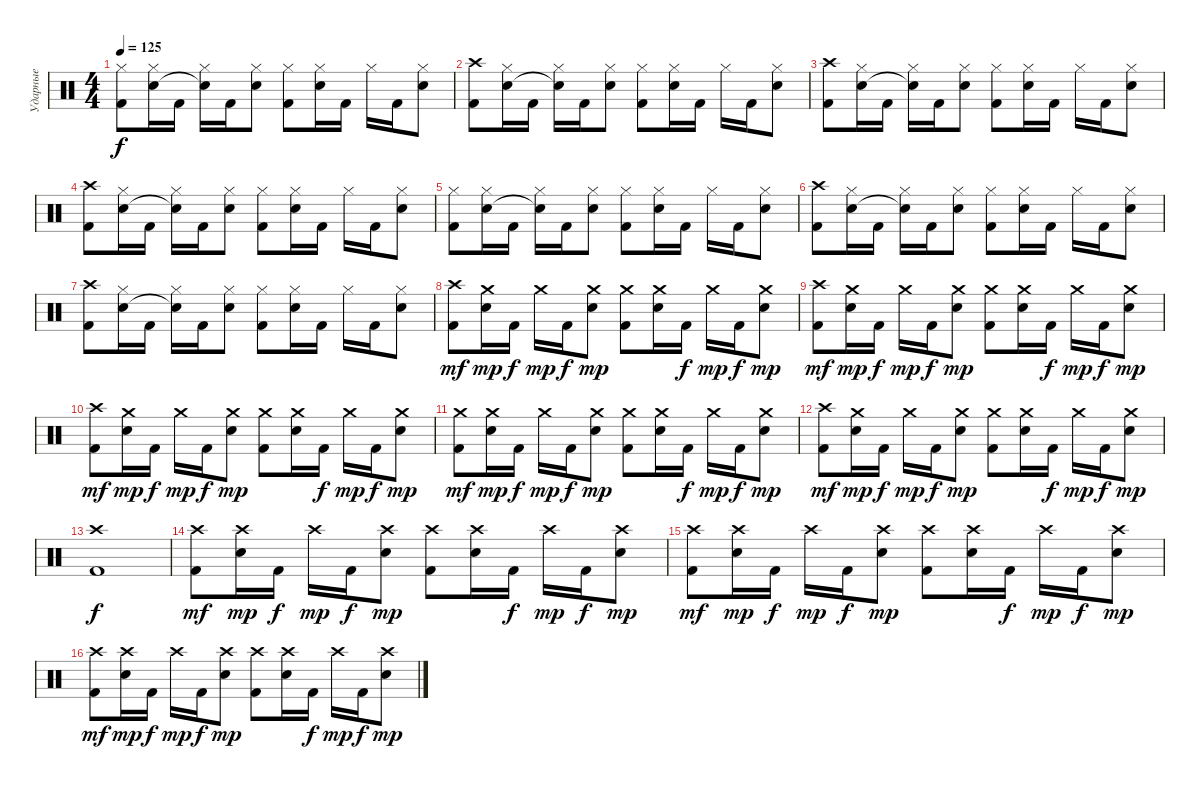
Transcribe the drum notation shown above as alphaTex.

\track ("Ударные" "Ударные") {instrument percussion}
\staff {score}
\articulation defaults
\ts (4 4)
\tempo 125
\clef neutral
\ks c
("Hi-Hat (closed)" "Kick (hit) 2").8{dy f} ("Hi-Hat (closed)" "Electric Snare (hit)").16 "Kick (hit) 2".16 ("Hi-Hat (closed)" "Snare (hit)"{t}).16 "Kick (hit) 2".16 ("Hi-Hat (closed)" "Electric Snare (hit)").8 ("Hi-Hat (closed)" "Kick (hit) 2").8 ("Hi-Hat (closed)" "Electric Snare (hit)").16 "Kick (hit) 2".16 "Hi-Hat (closed)".16 "Kick (hit) 2".16 ("Hi-Hat (closed)" "Electric Snare (hit)").8 |
("Crash high (hit)" "Kick (hit) 2").8 ("Hi-Hat (closed)" "Electric Snare (hit)").16 "Kick (hit) 2".16 ("Hi-Hat (closed)" "Snare (hit)"{t}).16 "Kick (hit) 2".16 ("Hi-Hat (closed)" "Electric Snare (hit)").8 ("Hi-Hat (closed)" "Kick (hit) 2").8 ("Hi-Hat (closed)" "Electric Snare (hit)").16 "Kick (hit) 2".16 "Hi-Hat (closed)".16 "Kick (hit) 2".16 ("Hi-Hat (closed)" "Electric Snare (hit)").8 |
("Crash high (hit)" "Kick (hit) 2").8 ("Hi-Hat (closed)" "Electric Snare (hit)").16 "Kick (hit) 2".16 ("Hi-Hat (closed)" "Snare (hit)"{t}).16 "Kick (hit) 2".16 ("Hi-Hat (closed)" "Electric Snare (hit)").8 ("Hi-Hat (closed)" "Kick (hit) 2").8 ("Hi-Hat (closed)" "Electric Snare (hit)").16 "Kick (hit) 2".16 "Hi-Hat (closed)".16 "Kick (hit) 2".16 ("Hi-Hat (closed)" "Electric Snare (hit)").8 |
("Crash high (hit)" "Kick (hit) 2").8 ("Hi-Hat (closed)" "Electric Snare (hit)").16 "Kick (hit) 2".16 ("Hi-Hat (closed)" "Snare (hit)"{t}).16 "Kick (hit) 2".16 ("Hi-Hat (closed)" "Electric Snare (hit)").8 ("Hi-Hat (closed)" "Kick (hit) 2").8 ("Hi-Hat (closed)" "Electric Snare (hit)").16 "Kick (hit) 2".16 "Hi-Hat (closed)".16 "Kick (hit) 2".16 ("Hi-Hat (closed)" "Electric Snare (hit)").8 |
("Hi-Hat (closed)" "Kick (hit) 2").8 ("Hi-Hat (closed)" "Electric Snare (hit)").16 "Kick (hit) 2".16 ("Hi-Hat (closed)" "Snare (hit)"{t}).16 "Kick (hit) 2".16 ("Hi-Hat (closed)" "Electric Snare (hit)").8 ("Hi-Hat (closed)" "Kick (hit) 2").8 ("Hi-Hat (closed)" "Electric Snare (hit)").16 "Kick (hit) 2".16 "Hi-Hat (closed)".16 "Kick (hit) 2".16 ("Hi-Hat (closed)" "Electric Snare (hit)").8 |
("Crash high (hit)" "Kick (hit) 2").8 ("Hi-Hat (closed)" "Electric Snare (hit)").16 "Kick (hit) 2".16 ("Hi-Hat (closed)" "Snare (hit)"{t}).16 "Kick (hit) 2".16 ("Hi-Hat (closed)" "Electric Snare (hit)").8 ("Hi-Hat (closed)" "Kick (hit) 2").8 ("Hi-Hat (closed)" "Electric Snare (hit)").16 "Kick (hit) 2".16 "Hi-Hat (closed)".16 "Kick (hit) 2".16 ("Hi-Hat (closed)" "Electric Snare (hit)").8 |
("Crash high (hit)" "Kick (hit) 2").8 ("Hi-Hat (closed)" "Electric Snare (hit)").16 "Kick (hit) 2".16 ("Hi-Hat (closed)" "Snare (hit)"{t}).16 "Kick (hit) 2".16 ("Hi-Hat (closed)" "Electric Snare (hit)").8 ("Hi-Hat (closed)" "Kick (hit) 2").8 ("Hi-Hat (closed)" "Electric Snare (hit)").16 "Kick (hit) 2".16 "Hi-Hat (closed)".16 "Kick (hit) 2".16 ("Hi-Hat (closed)" "Electric Snare (hit)").8 |
("Crash high (hit)" "Kick (hit) 2").8{dy mf} ("Crash medium (hit)" "Electric Snare (hit)").16{dy mp} "Kick (hit) 2".16{dy f} "Crash medium (hit)".16{dy mp} "Kick (hit) 2".16{dy f} ("Crash medium (hit)" "Electric Snare (hit)").8{dy mp} ("Crash medium (hit)" "Kick (hit) 2").8 ("Crash medium (hit)" "Electric Snare (hit)").16 "Kick (hit) 2".16{dy f} "Crash medium (hit)".16{dy mp} "Kick (hit) 2".16{dy f} ("Crash medium (hit)" "Electric Snare (hit)").8{dy mp} |
("Crash high (hit)" "Kick (hit) 2").8{dy mf} ("Crash medium (hit)" "Electric Snare (hit)").16{dy mp} "Kick (hit) 2".16{dy f} "Crash medium (hit)".16{dy mp} "Kick (hit) 2".16{dy f} ("Crash medium (hit)" "Electric Snare (hit)").8{dy mp} ("Crash medium (hit)" "Kick (hit) 2").8 ("Crash medium (hit)" "Electric Snare (hit)").16 "Kick (hit) 2".16{dy f} "Crash medium (hit)".16{dy mp} "Kick (hit) 2".16{dy f} ("Crash medium (hit)" "Electric Snare (hit)").8{dy mp} |
("Crash high (hit)" "Kick (hit) 2").8{dy mf} ("Crash medium (hit)" "Electric Snare (hit)").16{dy mp} "Kick (hit) 2".16{dy f} "Crash medium (hit)".16{dy mp} "Kick (hit) 2".16{dy f} ("Crash medium (hit)" "Electric Snare (hit)").8{dy mp} ("Crash medium (hit)" "Kick (hit) 2").8 ("Crash medium (hit)" "Electric Snare (hit)").16 "Kick (hit) 2".16{dy f} "Crash medium (hit)".16{dy mp} "Kick (hit) 2".16{dy f} ("Crash medium (hit)" "Electric Snare (hit)").8{dy mp} |
("Crash medium (hit)" "Kick (hit) 2").8{dy mf} ("Crash medium (hit)" "Electric Snare (hit)").16{dy mp} "Kick (hit) 2".16{dy f} "Crash medium (hit)".16{dy mp} "Kick (hit) 2".16{dy f} ("Crash medium (hit)" "Electric Snare (hit)").8{dy mp} ("Crash medium (hit)" "Kick (hit) 2").8 ("Crash medium (hit)" "Electric Snare (hit)").16 "Kick (hit) 2".16{dy f} "Crash medium (hit)".16{dy mp} "Kick (hit) 2".16{dy f} ("Crash medium (hit)" "Electric Snare (hit)").8{dy mp} |
("Crash high (hit)" "Kick (hit) 2").8{dy mf} ("Crash medium (hit)" "Electric Snare (hit)").16{dy mp} "Kick (hit) 2".16{dy f} "Crash medium (hit)".16{dy mp} "Kick (hit) 2".16{dy f} ("Crash medium (hit)" "Electric Snare (hit)").8{dy mp} ("Crash medium (hit)" "Kick (hit) 2").8 ("Crash medium (hit)" "Electric Snare (hit)").16 "Kick (hit) 2".16{dy f} "Crash medium (hit)".16{dy mp} "Kick (hit) 2".16{dy f} ("Crash medium (hit)" "Electric Snare (hit)").8{dy mp} |
("Crash high (hit)" "Kick (hit) 2").1{dy f} |
("Crash high (hit)" "Kick (hit) 2").8{dy mf} ("Crash high (hit)" "Electric Snare (hit)").16{dy mp} "Kick (hit) 2".16{dy f} "Crash high (hit)".16{dy mp} "Kick (hit) 2".16{dy f} ("Crash high (hit)" "Electric Snare (hit)").8{dy mp} ("Crash high (hit)" "Kick (hit) 2").8 ("Crash high (hit)" "Electric Snare (hit)").16 "Kick (hit) 2".16{dy f} "Crash high (hit)".16{dy mp} "Kick (hit) 2".16{dy f} ("Crash high (hit)" "Electric Snare (hit)").8{dy mp} |
("Crash high (hit)" "Kick (hit) 2").8{dy mf} ("Crash high (hit)" "Electric Snare (hit)").16{dy mp} "Kick (hit) 2".16{dy f} "Crash high (hit)".16{dy mp} "Kick (hit) 2".16{dy f} ("Crash high (hit)" "Electric Snare (hit)").8{dy mp} ("Crash high (hit)" "Kick (hit) 2").8 ("Crash high (hit)" "Electric Snare (hit)").16 "Kick (hit) 2".16{dy f} "Crash high (hit)".16{dy mp} "Kick (hit) 2".16{dy f} ("Crash high (hit)" "Electric Snare (hit)").8{dy mp} |
("Crash high (hit)" "Kick (hit) 2").8{dy mf} ("Crash high (hit)" "Electric Snare (hit)").16{dy mp} "Kick (hit) 2".16{dy f} "Crash high (hit)".16{dy mp} "Kick (hit) 2".16{dy f} ("Crash high (hit)" "Electric Snare (hit)").8{dy mp} ("Crash high (hit)" "Kick (hit) 2").8 ("Crash high (hit)" "Electric Snare (hit)").16 "Kick (hit) 2".16{dy f} "Crash high (hit)".16{dy mp} "Kick (hit) 2".16{dy f} ("Crash high (hit)" "Electric Snare (hit)").8{dy mp}
